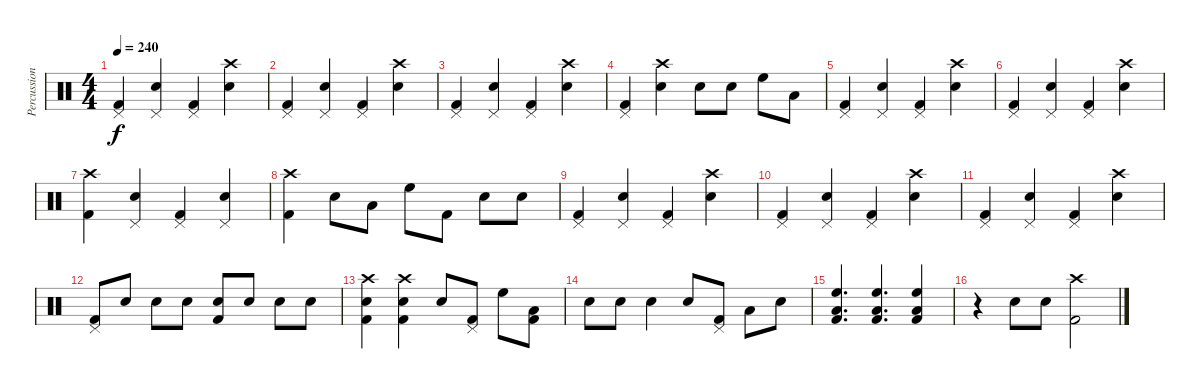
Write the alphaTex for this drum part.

\track ("Percussion" "Percussion") {instrument percussion}
\staff {score}
\articulation defaults
\ts (4 4)
\tempo 240
\clef neutral
\ks c
("Pedal Hi-Hat (hit)" "Kick (hit) 2").4{dy f} ("Pedal Hi-Hat (hit)" "Electric Snare (hit)").4 ("Pedal Hi-Hat (hit)" "Kick (hit) 2").4 ("Crash high (hit)" "Electric Snare (hit)").4 |
("Pedal Hi-Hat (hit)" "Kick (hit) 2").4 ("Pedal Hi-Hat (hit)" "Electric Snare (hit)").4 ("Pedal Hi-Hat (hit)" "Kick (hit) 2").4 ("Crash high (hit)" "Electric Snare (hit)").4 |
("Pedal Hi-Hat (hit)" "Kick (hit) 2").4 ("Pedal Hi-Hat (hit)" "Electric Snare (hit)").4 ("Pedal Hi-Hat (hit)" "Kick (hit) 2").4 ("Crash high (hit)" "Electric Snare (hit)").4 |
("Pedal Hi-Hat (hit)" "Kick (hit) 2").4 ("Crash high (hit)" "Electric Snare (hit)").4 "Electric Snare (hit)".8 "Electric Snare (hit)".8 "High Floor Tom (hit)".8 "Low Tom (hit)".8 |
("Pedal Hi-Hat (hit)" "Kick (hit) 2").4 ("Pedal Hi-Hat (hit)" "Electric Snare (hit)").4 ("Pedal Hi-Hat (hit)" "Kick (hit) 2").4 ("Crash high (hit)" "Electric Snare (hit)").4 |
("Pedal Hi-Hat (hit)" "Kick (hit) 2").4 ("Pedal Hi-Hat (hit)" "Electric Snare (hit)").4 ("Pedal Hi-Hat (hit)" "Kick (hit) 2").4 ("Crash high (hit)" "Electric Snare (hit)").4 |
("Crash high (hit)" "Kick (hit) 2").4 ("Pedal Hi-Hat (hit)" "Electric Snare (hit)").4 ("Pedal Hi-Hat (hit)" "Kick (hit) 2").4 ("Pedal Hi-Hat (hit)" "Electric Snare (hit)").4 |
("Crash high (hit)" "Kick (hit) 2").4 "Electric Snare (hit)".8 "Low Tom (hit)".8 "High Floor Tom (hit)".8 "Kick (hit) 2".8 "Electric Snare (hit)".8 "Electric Snare (hit)".8 |
("Pedal Hi-Hat (hit)" "Kick (hit) 2").4 ("Pedal Hi-Hat (hit)" "Electric Snare (hit)").4 ("Pedal Hi-Hat (hit)" "Kick (hit) 2").4 ("Crash high (hit)" "Electric Snare (hit)").4 |
("Pedal Hi-Hat (hit)" "Kick (hit) 2").4 ("Pedal Hi-Hat (hit)" "Electric Snare (hit)").4 ("Pedal Hi-Hat (hit)" "Kick (hit) 2").4 ("Crash high (hit)" "Electric Snare (hit)").4 |
("Pedal Hi-Hat (hit)" "Kick (hit) 2").4 ("Pedal Hi-Hat (hit)" "Electric Snare (hit)").4 ("Pedal Hi-Hat (hit)" "Kick (hit) 2").4 ("Crash high (hit)" "Electric Snare (hit)").4 |
("Pedal Hi-Hat (hit)" "Kick (hit) 2").8 "Electric Snare (hit)".8 "Electric Snare (hit)".8 "Electric Snare (hit)".8 ("Electric Snare (hit)" "Kick (hit) 2").8 "Electric Snare (hit)".8 "Electric Snare (hit)".8 "Electric Snare (hit)".8 |
("Crash high (hit)" "Electric Snare (hit)" "Kick (hit) 2").4 ("Crash high (hit)" "Electric Snare (hit)" "Kick (hit) 2").4 "Electric Snare (hit)".8 ("Pedal Hi-Hat (hit)" "Kick (hit) 2").8 "High Floor Tom (hit)".8 ("Low Tom (hit)" "Kick (hit) 2").8 |
"Electric Snare (hit)".8 "Electric Snare (hit)".8 "Electric Snare (hit)".4 "Electric Snare (hit)".8 ("Pedal Hi-Hat (hit)" "Kick (hit) 2").8 "Low Tom (hit)".8 "Electric Snare (hit)".8 |
("Low Tom (hit)" "High Floor Tom (hit)" "Kick (hit) 2").4{d} ("Low Tom (hit)" "High Floor Tom (hit)" "Kick (hit) 2").4{d} ("Low Tom (hit)" "High Floor Tom (hit)" "Kick (hit) 2").4 |
r.4 "Electric Snare (hit)".8 "Electric Snare (hit)".8 ("Crash high (hit)" "Kick (hit) 2").2
